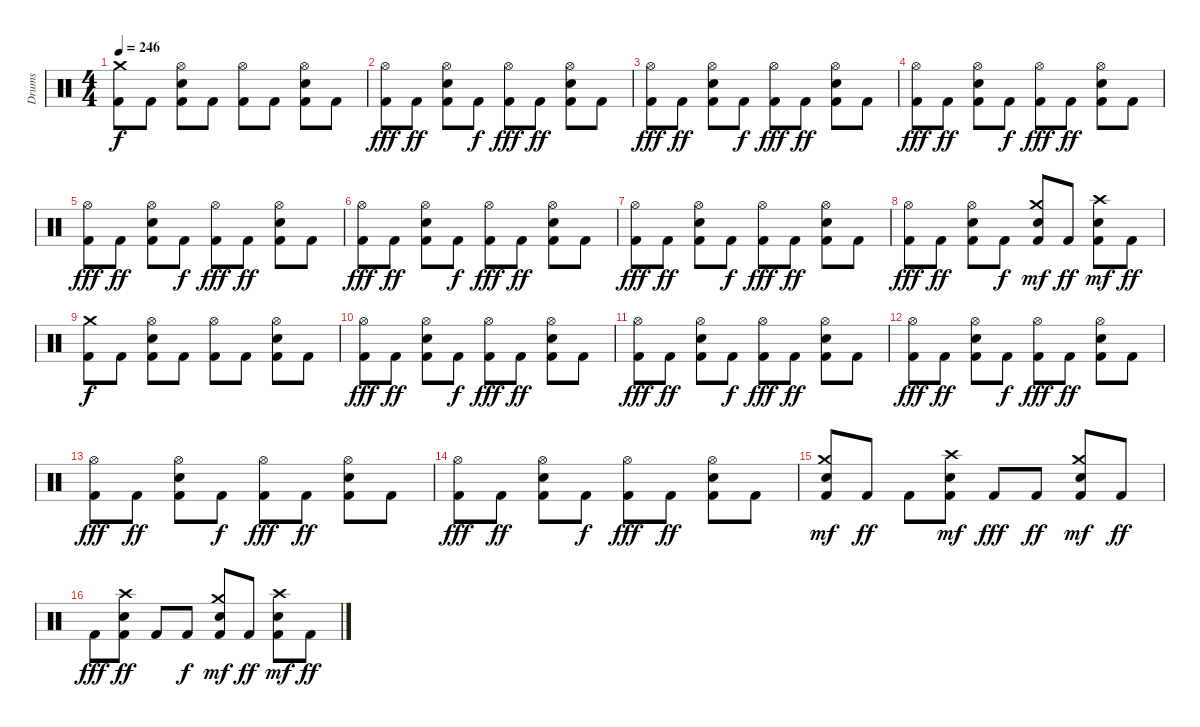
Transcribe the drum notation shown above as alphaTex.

\track ("Drums" "Drums") {instrument percussion}
\staff {score}
\articulation defaults
\ts (4 4)
\tempo 246
\clef neutral
\ks c
("Kick (hit) 2" "Crash medium (hit)").8{dy f volume 12} "Kick (hit) 2".8 ("Kick (hit) 2" "Snare (hit) 2" "Hi-Hat (open)").8 "Kick (hit) 2".8 ("Kick (hit) 2" "Hi-Hat (open)").8 "Kick (hit) 2".8 ("Kick (hit) 2" "Snare (hit) 2" "Hi-Hat (open)").8 "Kick (hit) 2".8 |
("Kick (hit) 2" "Hi-Hat (open)").8{dy fff volume 12} "Kick (hit) 2".8{dy ff} ("Kick (hit) 2" "Snare (hit) 2" "Hi-Hat (open)").8 "Kick (hit) 2".8{dy f} ("Kick (hit) 2" "Hi-Hat (open)").8{dy fff} "Kick (hit) 2".8{dy ff} ("Kick (hit) 2" "Snare (hit) 2" "Hi-Hat (open)").8 "Kick (hit) 2".8 |
("Kick (hit) 2" "Hi-Hat (open)").8{dy fff volume 12} "Kick (hit) 2".8{dy ff} ("Kick (hit) 2" "Snare (hit) 2" "Hi-Hat (open)").8 "Kick (hit) 2".8{dy f} ("Kick (hit) 2" "Hi-Hat (open)").8{dy fff} "Kick (hit) 2".8{dy ff} ("Kick (hit) 2" "Snare (hit) 2" "Hi-Hat (open)").8 "Kick (hit) 2".8 |
("Kick (hit) 2" "Hi-Hat (open)").8{dy fff volume 12} "Kick (hit) 2".8{dy ff} ("Kick (hit) 2" "Snare (hit) 2" "Hi-Hat (open)").8 "Kick (hit) 2".8{dy f} ("Kick (hit) 2" "Hi-Hat (open)").8{dy fff} "Kick (hit) 2".8{dy ff} ("Kick (hit) 2" "Snare (hit) 2" "Hi-Hat (open)").8 "Kick (hit) 2".8 |
("Kick (hit) 2" "Hi-Hat (open)").8{dy fff volume 12} "Kick (hit) 2".8{dy ff} ("Kick (hit) 2" "Snare (hit) 2" "Hi-Hat (open)").8 "Kick (hit) 2".8{dy f} ("Kick (hit) 2" "Hi-Hat (open)").8{dy fff} "Kick (hit) 2".8{dy ff} ("Kick (hit) 2" "Snare (hit) 2" "Hi-Hat (open)").8 "Kick (hit) 2".8 |
("Kick (hit) 2" "Hi-Hat (open)").8{dy fff volume 12} "Kick (hit) 2".8{dy ff} ("Kick (hit) 2" "Snare (hit) 2" "Hi-Hat (open)").8 "Kick (hit) 2".8{dy f} ("Kick (hit) 2" "Hi-Hat (open)").8{dy fff} "Kick (hit) 2".8{dy ff} ("Kick (hit) 2" "Snare (hit) 2" "Hi-Hat (open)").8 "Kick (hit) 2".8 |
("Kick (hit) 2" "Hi-Hat (open)").8{dy fff volume 12} "Kick (hit) 2".8{dy ff} ("Kick (hit) 2" "Snare (hit) 2" "Hi-Hat (open)").8 "Kick (hit) 2".8{dy f} ("Kick (hit) 2" "Hi-Hat (open)").8{dy fff} "Kick (hit) 2".8{dy ff} ("Kick (hit) 2" "Snare (hit) 2" "Hi-Hat (open)").8 "Kick (hit) 2".8 |
("Kick (hit) 2" "Hi-Hat (open)").8{dy fff volume 12} "Kick (hit) 2".8{dy ff} ("Kick (hit) 2" "Snare (hit) 2" "Hi-Hat (open)").8 "Kick (hit) 2".8{dy f} ("Kick (hit) 2" "Snare (hit) 2" "Crash medium (hit)").8{dy mf} "Kick (hit) 2".8{dy ff} ("Kick (hit) 2" "Snare (hit) 2" "Crash high (hit)").8{dy mf} "Kick (hit) 2".8{dy ff} |
("Kick (hit) 2" "Crash medium (hit)").8{dy f volume 12} "Kick (hit) 2".8 ("Kick (hit) 2" "Snare (hit) 2" "Hi-Hat (open)").8 "Kick (hit) 2".8 ("Kick (hit) 2" "Hi-Hat (open)").8 "Kick (hit) 2".8 ("Kick (hit) 2" "Snare (hit) 2" "Hi-Hat (open)").8 "Kick (hit) 2".8 |
("Kick (hit) 2" "Hi-Hat (open)").8{dy fff volume 12} "Kick (hit) 2".8{dy ff} ("Kick (hit) 2" "Snare (hit) 2" "Hi-Hat (open)").8 "Kick (hit) 2".8{dy f} ("Kick (hit) 2" "Hi-Hat (open)").8{dy fff} "Kick (hit) 2".8{dy ff} ("Kick (hit) 2" "Snare (hit) 2" "Hi-Hat (open)").8 "Kick (hit) 2".8 |
("Kick (hit) 2" "Hi-Hat (open)").8{dy fff volume 12} "Kick (hit) 2".8{dy ff} ("Kick (hit) 2" "Snare (hit) 2" "Hi-Hat (open)").8 "Kick (hit) 2".8{dy f} ("Kick (hit) 2" "Hi-Hat (open)").8{dy fff} "Kick (hit) 2".8{dy ff} ("Kick (hit) 2" "Snare (hit) 2" "Hi-Hat (open)").8 "Kick (hit) 2".8 |
("Kick (hit) 2" "Hi-Hat (open)").8{dy fff volume 12} "Kick (hit) 2".8{dy ff} ("Kick (hit) 2" "Snare (hit) 2" "Hi-Hat (open)").8 "Kick (hit) 2".8{dy f} ("Kick (hit) 2" "Hi-Hat (open)").8{dy fff} "Kick (hit) 2".8{dy ff} ("Kick (hit) 2" "Snare (hit) 2" "Hi-Hat (open)").8 "Kick (hit) 2".8 |
("Kick (hit) 2" "Hi-Hat (open)").8{dy fff volume 12} "Kick (hit) 2".8{dy ff} ("Kick (hit) 2" "Snare (hit) 2" "Hi-Hat (open)").8 "Kick (hit) 2".8{dy f} ("Kick (hit) 2" "Hi-Hat (open)").8{dy fff} "Kick (hit) 2".8{dy ff} ("Kick (hit) 2" "Snare (hit) 2" "Hi-Hat (open)").8 "Kick (hit) 2".8 |
("Kick (hit) 2" "Hi-Hat (open)").8{dy fff volume 12} "Kick (hit) 2".8{dy ff} ("Kick (hit) 2" "Snare (hit) 2" "Hi-Hat (open)").8 "Kick (hit) 2".8{dy f} ("Kick (hit) 2" "Hi-Hat (open)").8{dy fff} "Kick (hit) 2".8{dy ff} ("Kick (hit) 2" "Snare (hit) 2" "Hi-Hat (open)").8 "Kick (hit) 2".8 |
("Kick (hit) 2" "Snare (hit) 2" "Crash medium (hit)").8{dy mf volume 12} "Kick (hit) 2".8{dy ff} "Kick (hit) 2".8 ("Kick (hit) 2" "Snare (hit) 2" "Crash high (hit)").8{dy mf} "Kick (hit) 2".8{dy fff} "Kick (hit) 2".8{dy ff} ("Kick (hit) 2" "Snare (hit) 2" "Crash medium (hit)").8{dy mf} "Kick (hit) 2".8{dy ff} |
"Kick (hit) 2".8{dy fff volume 12} ("Kick (hit) 2" "Snare (hit) 2" "Crash high (hit)").8{dy ff} "Kick (hit) 2".8 "Kick (hit) 2".8{dy f} ("Kick (hit) 2" "Snare (hit) 2" "Crash medium (hit)").8{dy mf} "Kick (hit) 2".8{dy ff} ("Kick (hit) 2" "Snare (hit) 2" "Crash high (hit)").8{dy mf} "Kick (hit) 2".8{dy ff}
